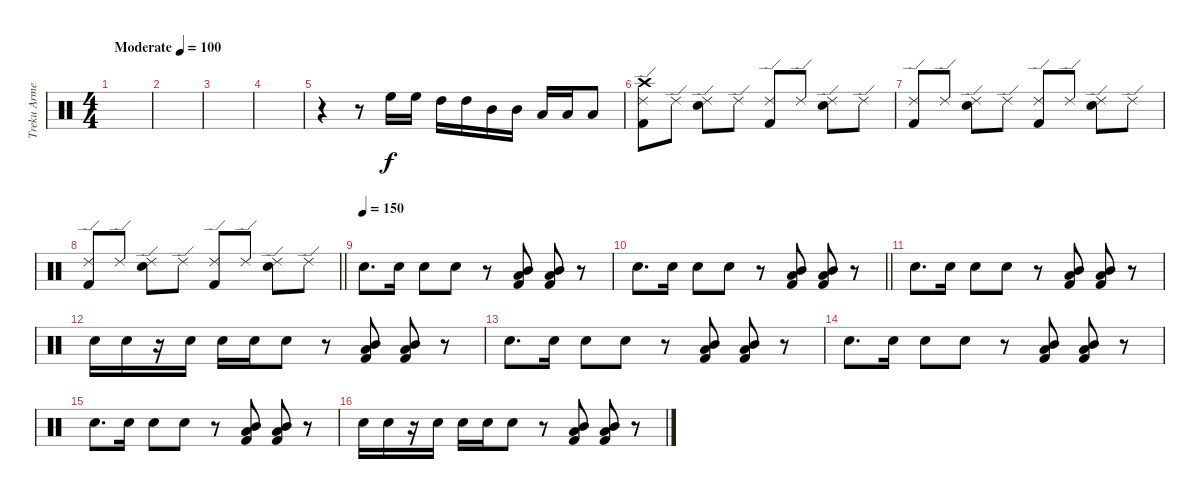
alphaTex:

\track ("Treku Armendáriz" "Treku Arme") {instrument percussion}
\staff {score}
\articulation defaults
\ts (4 4)
\tempo (100 "Moderate")
\clef neutral
\ks c
|
|
|
|
r.4 r.8 "High Floor Tom (hit)".16 "High Floor Tom (hit)".16 "High Tom (hit)".16 "High Tom (hit)".16 "Mid Tom (hit)".16 "Mid Tom (hit)".16 "Low Tom (hit)".16 "Low Tom (hit)".16 "Low Tom (hit)".8 |
("Ride (edge) 2" "Kick (hit) 2" "Crash high (hit)").8 "Ride (edge) 2".8 ("Ride (edge) 2" "Electric Snare (hit)").8 "Ride (edge) 2".8 ("Ride (edge) 2" "Kick (hit) 2").8 "Ride (edge) 2".8 ("Ride (edge) 2" "Electric Snare (hit)").8 "Ride (edge) 2".8 |
("Ride (edge) 2" "Kick (hit) 2").8 "Ride (edge) 2".8 ("Ride (edge) 2" "Electric Snare (hit)").8 "Ride (edge) 2".8 ("Ride (edge) 2" "Kick (hit) 2").8 "Ride (edge) 2".8 ("Ride (edge) 2" "Electric Snare (hit)").8 "Ride (edge) 2".8 |
\barLineRight lightlight
("Ride (edge) 2" "Kick (hit) 2").8 "Ride (edge) 2".8 ("Ride (edge) 2" "Electric Snare (hit)").8 "Ride (edge) 2".8 ("Ride (edge) 2" "Kick (hit) 2").8 "Ride (edge) 2".8 ("Ride (edge) 2" "Electric Snare (hit)").8 "Ride (edge) 2".8 |
\tempo (150)
"Electric Snare (hit)".8{d} "Electric Snare (hit)".16 "Electric Snare (hit)".8 "Electric Snare (hit)".8 r.8 ("Kick (hit) 2" "Low Tom (hit)" "Mid Tom (hit)").8 ("Kick (hit) 2" "Low Tom (hit)" "Mid Tom (hit)").8 r.8 |
\barLineRight lightlight "Electric Snare (hit)".8{d} "Electric Snare (hit)".16 "Electric Snare (hit)".8 "Electric Snare (hit)".8
r.8 ("Kick (hit) 2" "Low Tom (hit)" "Mid Tom (hit)").8 ("Kick (hit) 2" "Low Tom (hit)" "Mid Tom (hit)").8 r.8 |
"Electric Snare (hit)".8{d} "Electric Snare (hit)".16 "Electric Snare (hit)".8 "Electric Snare (hit)".8 r.8 ("Kick (hit) 2" "Low Tom (hit)" "Mid Tom (hit)").8 ("Kick (hit) 2" "Low Tom (hit)" "Mid Tom (hit)").8 r.8 |
"Electric Snare (hit)".16 "Electric Snare (hit)".16 r.16 "Electric Snare (hit)".16 "Electric Snare (hit)".16 "Electric Snare (hit)".16 "Electric Snare (hit)".8 r.8 ("Kick (hit) 2" "Low Tom (hit)" "Mid Tom (hit)").8 ("Kick (hit) 2" "Low Tom (hit)" "Mid Tom (hit)").8 r.8 |
"Electric Snare (hit)".8{d} "Electric Snare (hit)".16 "Electric Snare (hit)".8 "Electric Snare (hit)".8 r.8 ("Kick (hit) 2" "Low Tom (hit)" "Mid Tom (hit)").8 ("Kick (hit) 2" "Low Tom (hit)" "Mid Tom (hit)").8 r.8 |
"Electric Snare (hit)".8{d} "Electric Snare (hit)".16 "Electric Snare (hit)".8 "Electric Snare (hit)".8 r.8 ("Kick (hit) 2" "Low Tom (hit)" "Mid Tom (hit)").8 ("Kick (hit) 2" "Low Tom (hit)" "Mid Tom (hit)").8 r.8 |
"Electric Snare (hit)".8{d} "Electric Snare (hit)".16 "Electric Snare (hit)".8 "Electric Snare (hit)".8 r.8 ("Kick (hit) 2" "Low Tom (hit)" "Mid Tom (hit)").8 ("Kick (hit) 2" "Low Tom (hit)" "Mid Tom (hit)").8 r.8 |
"Electric Snare (hit)".16 "Electric Snare (hit)".16 r.16 "Electric Snare (hit)".16 "Electric Snare (hit)".16 "Electric Snare (hit)".16 "Electric Snare (hit)".8 r.8 ("Kick (hit) 2" "Low Tom (hit)" "Mid Tom (hit)").8 ("Kick (hit) 2" "Low Tom (hit)" "Mid Tom (hit)").8 r.8
